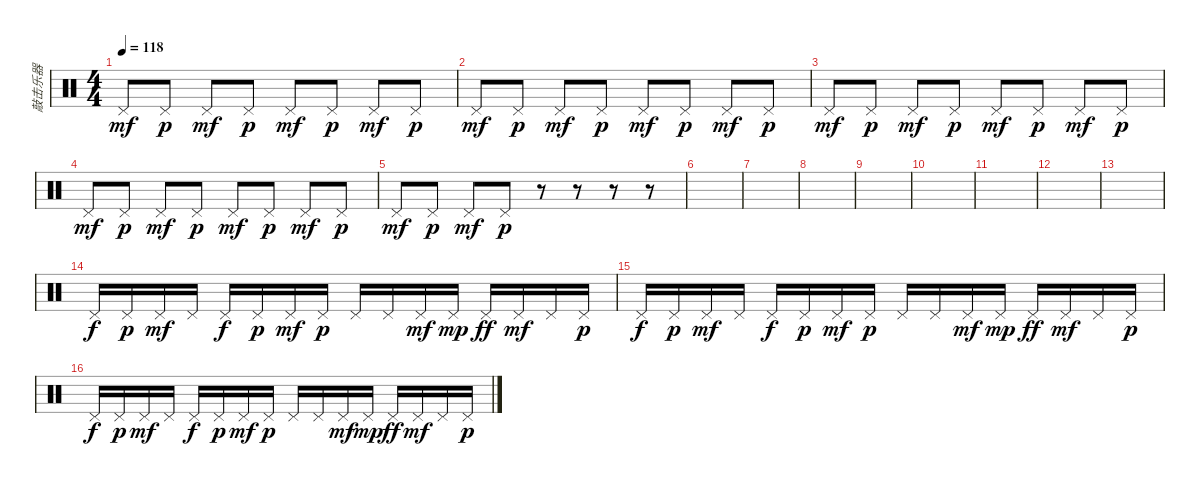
\track ("敲击乐器" "敲击乐器") {instrument percussion}
\staff {score}
\articulation defaults
\ts (4 4)
\tempo 118
\clef neutral
\ks c "Pedal Hi-Hat (hit)".8{dy mf} "Pedal Hi-Hat (hit)".8{dy p} "Pedal Hi-Hat (hit)".8{dy mf} "Pedal Hi-Hat (hit)".8{dy p} "Pedal Hi-Hat (hit)".8{dy mf} "Pedal Hi-Hat (hit)".8{dy p} "Pedal Hi-Hat (hit)".8{dy mf} "Pedal Hi-Hat (hit)".8{dy p}
|
"Pedal Hi-Hat (hit)".8{dy mf} "Pedal Hi-Hat (hit)".8{dy p} "Pedal Hi-Hat (hit)".8{dy mf} "Pedal Hi-Hat (hit)".8{dy p} "Pedal Hi-Hat (hit)".8{dy mf} "Pedal Hi-Hat (hit)".8{dy p} "Pedal Hi-Hat (hit)".8{dy mf} "Pedal Hi-Hat (hit)".8{dy p} |
"Pedal Hi-Hat (hit)".8{dy mf} "Pedal Hi-Hat (hit)".8{dy p} "Pedal Hi-Hat (hit)".8{dy mf} "Pedal Hi-Hat (hit)".8{dy p} "Pedal Hi-Hat (hit)".8{dy mf} "Pedal Hi-Hat (hit)".8{dy p} "Pedal Hi-Hat (hit)".8{dy mf} "Pedal Hi-Hat (hit)".8{dy p} |
"Pedal Hi-Hat (hit)".8{dy mf} "Pedal Hi-Hat (hit)".8{dy p} "Pedal Hi-Hat (hit)".8{dy mf} "Pedal Hi-Hat (hit)".8{dy p} "Pedal Hi-Hat (hit)".8{dy mf} "Pedal Hi-Hat (hit)".8{dy p} "Pedal Hi-Hat (hit)".8{dy mf} "Pedal Hi-Hat (hit)".8{dy p} |
"Pedal Hi-Hat (hit)".8{dy mf} "Pedal Hi-Hat (hit)".8{dy p} "Pedal Hi-Hat (hit)".8{dy mf} "Pedal Hi-Hat (hit)".8{dy p} r.8 r.8 r.8 r.8 |
|
|
|
|
|
|
|
|
"Pedal Hi-Hat (hit)".16{dy f} "Pedal Hi-Hat (hit)".16{dy p} "Pedal Hi-Hat (hit)".16{dy mf} "Pedal Hi-Hat (hit)".16 "Pedal Hi-Hat (hit)".16{dy f} "Pedal Hi-Hat (hit)".16{dy p} "Pedal Hi-Hat (hit)".16{dy mf} "Pedal Hi-Hat (hit)".16{dy p} "Pedal Hi-Hat (hit)".16 "Pedal Hi-Hat (hit)".16 "Pedal Hi-Hat (hit)".16{dy mf} "Pedal Hi-Hat (hit)".16{dy mp} "Pedal Hi-Hat (hit)".16{dy ff} "Pedal Hi-Hat (hit)".16{dy mf} "Pedal Hi-Hat (hit)".16 "Pedal Hi-Hat (hit)".16{dy p} |
"Pedal Hi-Hat (hit)".16{dy f} "Pedal Hi-Hat (hit)".16{dy p} "Pedal Hi-Hat (hit)".16{dy mf} "Pedal Hi-Hat (hit)".16 "Pedal Hi-Hat (hit)".16{dy f} "Pedal Hi-Hat (hit)".16{dy p} "Pedal Hi-Hat (hit)".16{dy mf} "Pedal Hi-Hat (hit)".16{dy p} "Pedal Hi-Hat (hit)".16 "Pedal Hi-Hat (hit)".16 "Pedal Hi-Hat (hit)".16{dy mf} "Pedal Hi-Hat (hit)".16{dy mp} "Pedal Hi-Hat (hit)".16{dy ff} "Pedal Hi-Hat (hit)".16{dy mf} "Pedal Hi-Hat (hit)".16 "Pedal Hi-Hat (hit)".16{dy p} |
"Pedal Hi-Hat (hit)".16{dy f} "Pedal Hi-Hat (hit)".16{dy p} "Pedal Hi-Hat (hit)".16{dy mf} "Pedal Hi-Hat (hit)".16 "Pedal Hi-Hat (hit)".16{dy f} "Pedal Hi-Hat (hit)".16{dy p} "Pedal Hi-Hat (hit)".16{dy mf} "Pedal Hi-Hat (hit)".16{dy p} "Pedal Hi-Hat (hit)".16 "Pedal Hi-Hat (hit)".16 "Pedal Hi-Hat (hit)".16{dy mf} "Pedal Hi-Hat (hit)".16{dy mp} "Pedal Hi-Hat (hit)".16{dy ff} "Pedal Hi-Hat (hit)".16{dy mf} "Pedal Hi-Hat (hit)".16 "Pedal Hi-Hat (hit)".16{dy p}
